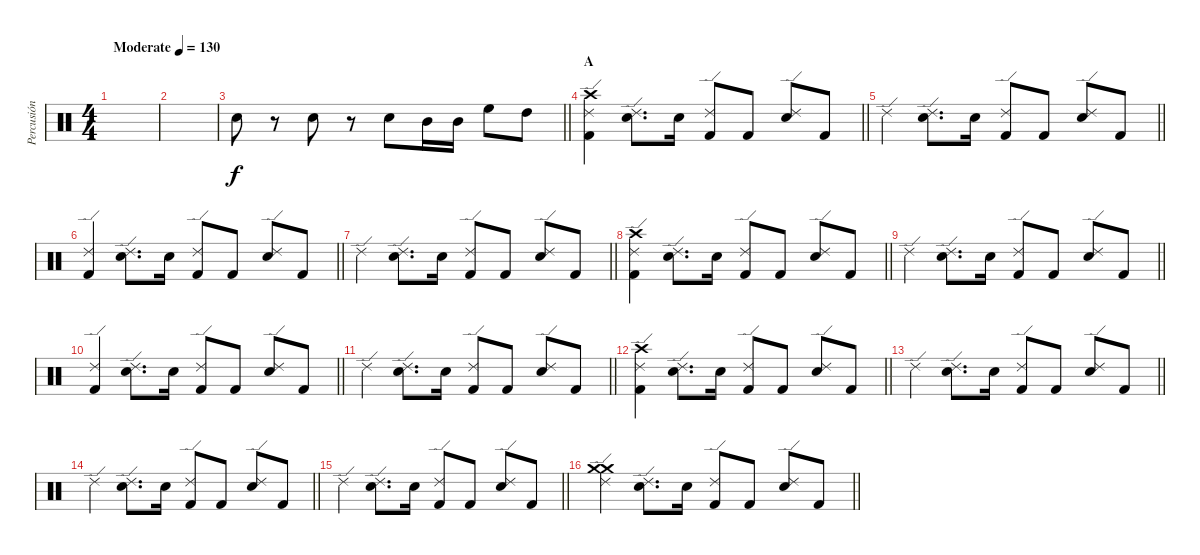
\track ("Percusión" "Percusión") {mute instrument percussion}
\staff {score}
\articulation defaults
\ts (4 4)
\tempo (130 "Moderate")
\clef neutral
\ks c
|
|
\barLineRight lightlight "Snare (hit) 2".8
r.8 "Snare (hit) 2".8 r.8 "Snare (hit) 2".8 "Mid Tom (hit)".16 "Mid Tom (hit)".16 "High Floor Tom (hit)".8 "High Tom (hit)".8 |
\section ("" "A")
\barLineRight lightlight
("Kick (hit) 2" "Ride (edge) 2" "Crash high (hit)").4 ("Snare (hit) 2" "Ride (edge) 2").8{d} "Snare (hit) 2".16 ("Kick (hit) 2" "Ride (edge) 2").8 "Kick (hit) 2".8 ("Snare (hit) 2" "Ride (edge) 2").8 "Kick (hit) 2".8 |
\barLineRight lightlight "Ride (edge) 2".4
("Snare (hit) 2" "Ride (edge) 2").8{d} "Snare (hit) 2".16 ("Kick (hit) 2" "Ride (edge) 2").8 "Kick (hit) 2".8 ("Snare (hit) 2" "Ride (edge) 2").8 "Kick (hit) 2".8 |
\barLineRight lightlight
("Kick (hit) 2" "Ride (edge) 2").4 ("Snare (hit) 2" "Ride (edge) 2").8{d} "Snare (hit) 2".16 ("Kick (hit) 2" "Ride (edge) 2").8 "Kick (hit) 2".8 ("Snare (hit) 2" "Ride (edge) 2").8 "Kick (hit) 2".8 |
\barLineRight lightlight "Ride (edge) 2".4
("Snare (hit) 2" "Ride (edge) 2").8{d} "Snare (hit) 2".16 ("Kick (hit) 2" "Ride (edge) 2").8 "Kick (hit) 2".8 ("Snare (hit) 2" "Ride (edge) 2").8 "Kick (hit) 2".8 |
\barLineRight lightlight
("Kick (hit) 2" "Ride (edge) 2" "Crash high (hit)").4 ("Snare (hit) 2" "Ride (edge) 2").8{d} "Snare (hit) 2".16 ("Kick (hit) 2" "Ride (edge) 2").8 "Kick (hit) 2".8 ("Snare (hit) 2" "Ride (edge) 2").8 "Kick (hit) 2".8 |
\barLineRight lightlight "Ride (edge) 2".4
("Snare (hit) 2" "Ride (edge) 2").8{d} "Snare (hit) 2".16 ("Kick (hit) 2" "Ride (edge) 2").8 "Kick (hit) 2".8 ("Snare (hit) 2" "Ride (edge) 2").8 "Kick (hit) 2".8 |
\barLineRight lightlight
("Kick (hit) 2" "Ride (edge) 2").4 ("Snare (hit) 2" "Ride (edge) 2").8{d} "Snare (hit) 2".16 ("Kick (hit) 2" "Ride (edge) 2").8 "Kick (hit) 2".8 ("Snare (hit) 2" "Ride (edge) 2").8 "Kick (hit) 2".8 |
\barLineRight lightlight "Ride (edge) 2".4
("Snare (hit) 2" "Ride (edge) 2").8{d} "Snare (hit) 2".16 ("Kick (hit) 2" "Ride (edge) 2").8 "Kick (hit) 2".8 ("Snare (hit) 2" "Ride (edge) 2").8 "Kick (hit) 2".8 |
\barLineRight lightlight
("Kick (hit) 2" "Ride (edge) 2" "Crash high (hit)").4 ("Snare (hit) 2" "Ride (edge) 2").8{d} "Snare (hit) 2".16 ("Kick (hit) 2" "Ride (edge) 2").8 "Kick (hit) 2".8 ("Snare (hit) 2" "Ride (edge) 2").8 "Kick (hit) 2".8 |
\barLineRight lightlight "Ride (edge) 2".4
("Snare (hit) 2" "Ride (edge) 2").8{d} "Snare (hit) 2".16 ("Kick (hit) 2" "Ride (edge) 2").8 "Kick (hit) 2".8 ("Snare (hit) 2" "Ride (edge) 2").8 "Kick (hit) 2".8 |
\barLineRight lightlight "Ride (edge) 2".4
("Snare (hit) 2" "Ride (edge) 2").8{d} "Snare (hit) 2".16 ("Kick (hit) 2" "Ride (edge) 2").8 "Kick (hit) 2".8 ("Snare (hit) 2" "Ride (edge) 2").8 "Kick (hit) 2".8 |
\barLineRight lightlight "Ride (edge) 2".4
("Snare (hit) 2" "Ride (edge) 2").8{d} "Snare (hit) 2".16 ("Kick (hit) 2" "Ride (edge) 2").8 "Kick (hit) 2".8 ("Snare (hit) 2" "Ride (edge) 2").8 "Kick (hit) 2".8 |
\barLineRight lightlight
("Ride (edge) 2" "Crash medium (hit)" "Crash medium (hit)").4 ("Snare (hit) 2" "Ride (edge) 2").8{d} "Snare (hit) 2".16 ("Kick (hit) 2" "Ride (edge) 2").8 "Kick (hit) 2".8 ("Snare (hit) 2" "Ride (edge) 2").8 "Kick (hit) 2".8
